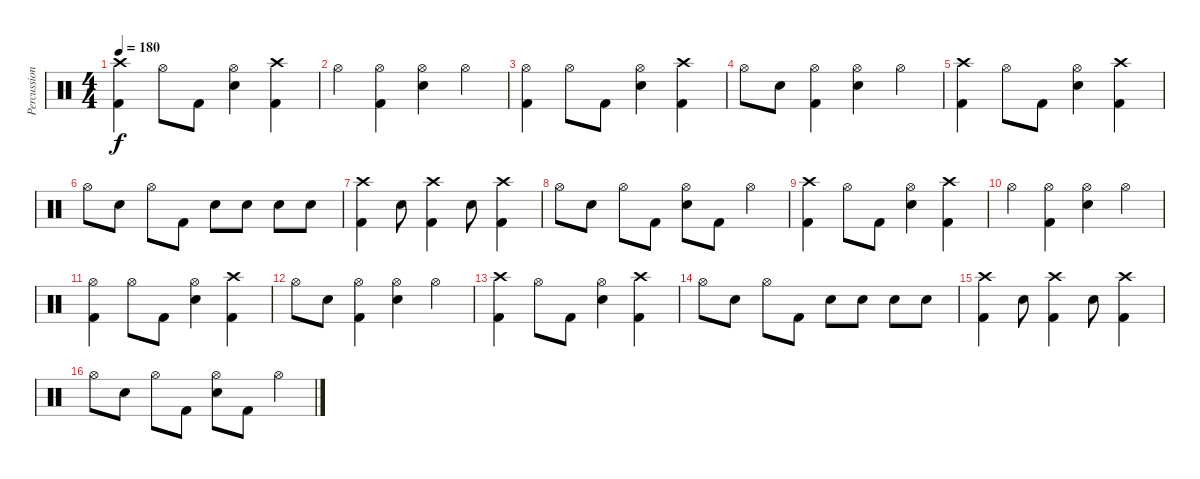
\track ("Percussion" "Percussion") {instrument percussion}
\staff {score}
\articulation defaults
\ts (4 4)
\tempo 180
\clef neutral
\ks c
("Crash high (hit)" "Kick (hit) 2").4{dy f} "Hi-Hat (open)".8 "Kick (hit) 2".8 ("Hi-Hat (open)" "Electric Snare (hit)").4 ("Crash high (hit)" "Kick (hit) 2").4 |
"Hi-Hat (open)".4 ("Hi-Hat (open)" "Kick (hit) 2").4 ("Hi-Hat (open)" "Electric Snare (hit)").4 "Hi-Hat (open)".4 |
("Hi-Hat (open)" "Kick (hit) 2").4 "Hi-Hat (open)".8 "Kick (hit) 2".8 ("Hi-Hat (open)" "Electric Snare (hit)").4 ("Crash high (hit)" "Kick (hit) 2").4 |
"Hi-Hat (open)".8 "Electric Snare (hit)".8 ("Hi-Hat (open)" "Kick (hit) 2").4 ("Hi-Hat (open)" "Electric Snare (hit)").4 "Hi-Hat (open)".4 |
("Crash high (hit)" "Kick (hit) 2").4 "Hi-Hat (open)".8 "Kick (hit) 2".8 ("Hi-Hat (open)" "Electric Snare (hit)").4 ("Crash high (hit)" "Kick (hit) 2").4 |
"Hi-Hat (open)".8 "Electric Snare (hit)".8 "Hi-Hat (open)".8 "Kick (hit) 2".8 "Electric Snare (hit)".8 "Electric Snare (hit)".8 "Electric Snare (hit)".8 "Electric Snare (hit)".8 |
("Crash high (hit)" "Kick (hit) 2").4 "Electric Snare (hit)".8 ("Crash high (hit)" "Kick (hit) 2").4 "Electric Snare (hit)".8 ("Crash high (hit)" "Kick (hit) 2").4 |
"Hi-Hat (open)".8 "Electric Snare (hit)".8 "Hi-Hat (open)".8 "Kick (hit) 2".8 ("Hi-Hat (open)" "Electric Snare (hit)").8 "Kick (hit) 2".8 "Hi-Hat (open)".4 |
("Crash high (hit)" "Kick (hit) 2").4 "Hi-Hat (open)".8 "Kick (hit) 2".8 ("Hi-Hat (open)" "Electric Snare (hit)").4 ("Crash high (hit)" "Kick (hit) 2").4 |
"Hi-Hat (open)".4 ("Hi-Hat (open)" "Kick (hit) 2").4 ("Hi-Hat (open)" "Electric Snare (hit)").4 "Hi-Hat (open)".4 |
("Hi-Hat (open)" "Kick (hit) 2").4 "Hi-Hat (open)".8 "Kick (hit) 2".8 ("Hi-Hat (open)" "Electric Snare (hit)").4 ("Crash high (hit)" "Kick (hit) 2").4 |
"Hi-Hat (open)".8 "Electric Snare (hit)".8 ("Hi-Hat (open)" "Kick (hit) 2").4 ("Hi-Hat (open)" "Electric Snare (hit)").4 "Hi-Hat (open)".4 |
("Crash high (hit)" "Kick (hit) 2").4 "Hi-Hat (open)".8 "Kick (hit) 2".8 ("Hi-Hat (open)" "Electric Snare (hit)").4 ("Crash high (hit)" "Kick (hit) 2").4 |
"Hi-Hat (open)".8 "Electric Snare (hit)".8 "Hi-Hat (open)".8 "Kick (hit) 2".8 "Electric Snare (hit)".8 "Electric Snare (hit)".8 "Electric Snare (hit)".8 "Electric Snare (hit)".8 |
("Crash high (hit)" "Kick (hit) 2").4 "Electric Snare (hit)".8 ("Crash high (hit)" "Kick (hit) 2").4 "Electric Snare (hit)".8 ("Crash high (hit)" "Kick (hit) 2").4 |
"Hi-Hat (open)".8 "Electric Snare (hit)".8 "Hi-Hat (open)".8 "Kick (hit) 2".8 ("Hi-Hat (open)" "Electric Snare (hit)").8 "Kick (hit) 2".8 "Hi-Hat (open)".4
